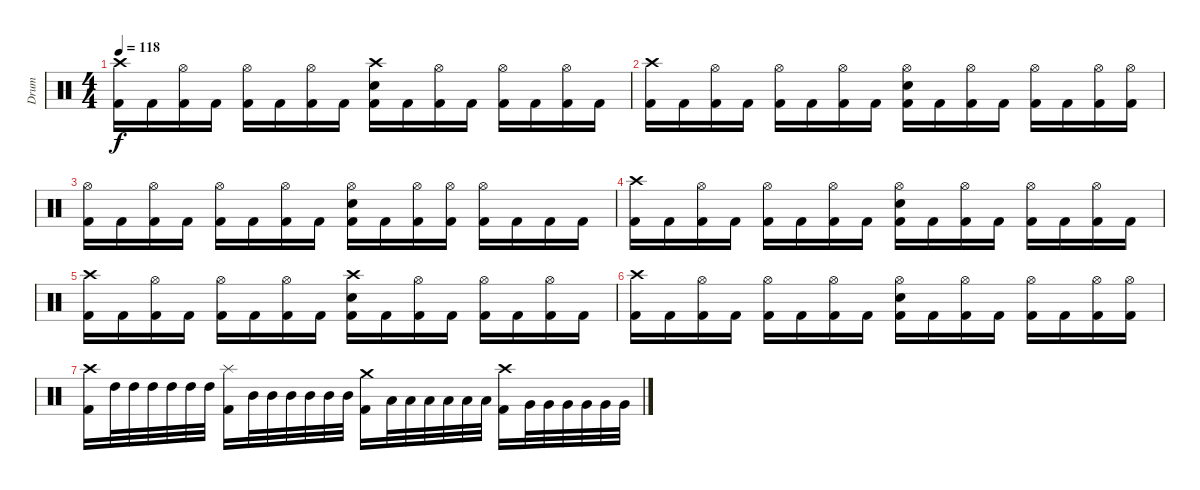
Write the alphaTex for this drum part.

\track ("Drum" "Drum") {instrument percussion}
\staff {score}
\articulation defaults
\ts (4 4)
\tempo 118
\clef neutral
\ks c
("Crash high (hit)" "Kick (hit) 2").16{dy f} "Kick (hit) 2".16 ("Hi-Hat (open)" "Kick (hit) 2").16 "Kick (hit) 2".16 ("Hi-Hat (open)" "Kick (hit) 2").16 "Kick (hit) 2".16 ("Hi-Hat (open)" "Kick (hit) 2").16 "Kick (hit) 2".16 ("Crash high (hit)" "Electric Snare (hit)" "Kick (hit) 2").16 "Kick (hit) 2".16 ("Hi-Hat (open)" "Kick (hit) 2").16 "Kick (hit) 2".16 ("Hi-Hat (open)" "Kick (hit) 2").16 "Kick (hit) 2".16 ("Hi-Hat (open)" "Kick (hit) 2").16 "Kick (hit) 2".16 |
("Crash high (hit)" "Kick (hit) 2").16 "Kick (hit) 2".16 ("Hi-Hat (open)" "Kick (hit) 2").16 "Kick (hit) 2".16 ("Hi-Hat (open)" "Kick (hit) 2").16 "Kick (hit) 2".16 ("Hi-Hat (open)" "Kick (hit) 2").16 "Kick (hit) 2".16 ("Hi-Hat (open)" "Electric Snare (hit)" "Kick (hit) 2").16 "Kick (hit) 2".16 ("Hi-Hat (open)" "Kick (hit) 2").16 "Kick (hit) 2".16 ("Hi-Hat (open)" "Kick (hit) 2").16 "Kick (hit) 2".16 ("Hi-Hat (open)" "Kick (hit) 2").16 ("Hi-Hat (open)" "Kick (hit) 2").16 |
("Hi-Hat (open)" "Kick (hit) 2").16 "Kick (hit) 2".16 ("Hi-Hat (open)" "Kick (hit) 2").16 "Kick (hit) 2".16 ("Hi-Hat (open)" "Kick (hit) 2").16 "Kick (hit) 2".16 ("Hi-Hat (open)" "Kick (hit) 2").16 "Kick (hit) 2".16 ("Hi-Hat (open)" "Electric Snare (hit)" "Kick (hit) 2").16 "Kick (hit) 2".16 ("Hi-Hat (open)" "Kick (hit) 2").16 ("Hi-Hat (open)" "Kick (hit) 2").16 ("Hi-Hat (open)" "Kick (hit) 2").16 "Kick (hit) 2".16 "Kick (hit) 2".16 "Kick (hit) 2".16 |
("Crash high (hit)" "Kick (hit) 2").16{volume 0} "Kick (hit) 2".16 ("Hi-Hat (open)" "Kick (hit) 2").16 "Kick (hit) 2".16 ("Hi-Hat (open)" "Kick (hit) 2").16 "Kick (hit) 2".16 ("Hi-Hat (open)" "Kick (hit) 2").16 "Kick (hit) 2".16 ("Hi-Hat (open)" "Electric Snare (hit)" "Kick (hit) 2").16 "Kick (hit) 2".16 ("Hi-Hat (open)" "Kick (hit) 2").16 "Kick (hit) 2".16 ("Hi-Hat (open)" "Kick (hit) 2").16 "Kick (hit) 2".16 ("Hi-Hat (open)" "Kick (hit) 2").16 "Kick (hit) 2".16 |
("Crash high (hit)" "Kick (hit) 2").16 "Kick (hit) 2".16 ("Hi-Hat (open)" "Kick (hit) 2").16 "Kick (hit) 2".16 ("Hi-Hat (open)" "Kick (hit) 2").16 "Kick (hit) 2".16 ("Hi-Hat (open)" "Kick (hit) 2").16 "Kick (hit) 2".16 ("Crash high (hit)" "Electric Snare (hit)" "Kick (hit) 2").16 "Kick (hit) 2".16 ("Hi-Hat (open)" "Kick (hit) 2").16 "Kick (hit) 2".16 ("Hi-Hat (open)" "Kick (hit) 2").16 "Kick (hit) 2".16 ("Hi-Hat (open)" "Kick (hit) 2").16 "Kick (hit) 2".16 |
("Crash high (hit)" "Kick (hit) 2").16 "Kick (hit) 2".16 ("Hi-Hat (open)" "Kick (hit) 2").16 "Kick (hit) 2".16 ("Hi-Hat (open)" "Kick (hit) 2").16 "Kick (hit) 2".16 ("Hi-Hat (open)" "Kick (hit) 2").16 "Kick (hit) 2".16 ("Hi-Hat (open)" "Electric Snare (hit)" "Kick (hit) 2").16 "Kick (hit) 2".16 ("Hi-Hat (open)" "Kick (hit) 2").16 "Kick (hit) 2".16 ("Hi-Hat (open)" "Kick (hit) 2").16 "Kick (hit) 2".16 ("Hi-Hat (open)" "Kick (hit) 2").16 ("Hi-Hat (open)" "Kick (hit) 2").16 |
("Crash high (hit)" "Kick (hit) 2").16 "High Tom (hit)".32 "High Tom (hit)".32 "High Tom (hit)".32 "High Tom (hit)".32 "High Tom (hit)".32 "High Tom (hit)".32 ("Splash (hit)" "Kick (hit) 2").16 "Mid Tom (hit)".32 "Mid Tom (hit)".32 "Mid Tom (hit)".32 "Mid Tom (hit)".32 "Mid Tom (hit)".32 "Mid Tom (hit)".32 ("Crash medium (hit)" "Kick (hit) 2").16 "Low Tom (hit)".32 "Low Tom (hit)".32 "Low Tom (hit)".32 "Low Tom (hit)".32 "Low Tom (hit)".32 "Low Tom (hit)".32 ("Crash high (hit)" "Kick (hit) 2").16 "Very Low Tom (hit)".32 "Very Low Tom (hit)".32 "Very Low Tom (hit)".32 "Very Low Tom (hit)".32 "Very Low Tom (hit)".32 "Very Low Tom (hit)".32
